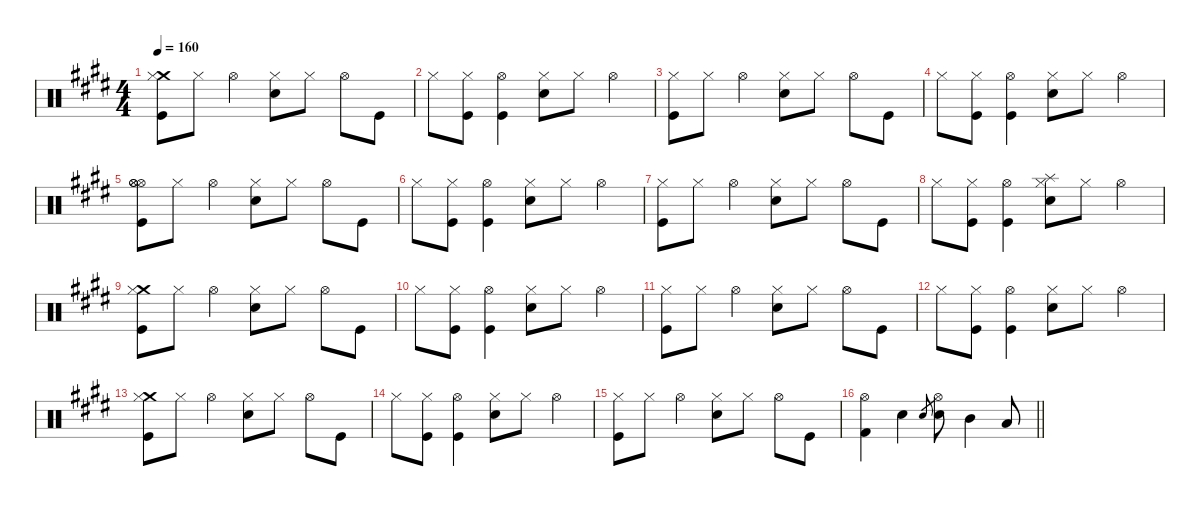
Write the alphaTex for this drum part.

\defaultSystemsLayout 4
\hideDynamics
\bracketExtendMode nobrackets
\singleTrackTrackNamePolicy hidden
\multiTrackTrackNamePolicy hidden
\firstSystemTrackNameMode fullname
\firstSystemTrackNameOrientation horizontal
\otherSystemsTrackNameOrientation horizontal
\track ("Drums" "drm.") {instrument percussion}
\staff {score}
\articulation defaults
\ts (4 4)
\tempo 160
\clef neutral
\ks c#minor
("Crash medium (hit)"{acc forcenatural} "Hi-Hat (closed)"{acc forcenatural} "Kick (hit)"{acc forcenatural}).8{dy f beam Down} "Hi-Hat (closed)"{acc forcenatural}.8{dy mf beam Down} "Hi-Hat (open)"{acc forcenatural}.4{dy f beam Down} ("Hi-Hat (closed)"{acc forcenatural} "Snare (hit) 2"{acc forcenatural}).8{beam Down} "Hi-Hat (closed)"{acc forcenatural}.8{dy mf beam Down} "Hi-Hat (open)"{acc forcenatural}.8{dy f beam Down} "Kick (hit)"{acc forcenatural}.8{beam Down} |
"Hi-Hat (closed)"{acc forcenatural}.8{beam Down} ("Hi-Hat (closed)"{acc forcenatural} "Kick (hit)"{acc forcenatural}).8{dy mf beam Down} ("Hi-Hat (open)"{acc forcenatural} "Kick (hit)"{acc forcenatural}).4{dy f beam Down} ("Hi-Hat (closed)"{acc forcenatural} "Snare (hit) 2"{acc forcenatural}).8{beam Down} "Hi-Hat (closed)"{acc forcenatural}.8{dy mf beam Down} "Hi-Hat (open)"{acc forcenatural}.4{dy f beam Down} |
("Hi-Hat (closed)"{acc forcenatural} "Kick (hit)"{acc forcenatural}).8{beam Down} "Hi-Hat (closed)"{acc forcenatural}.8{dy mf beam Down} "Hi-Hat (open)"{acc forcenatural}.4{dy f beam Down} ("Hi-Hat (closed)"{acc forcenatural} "Snare (hit) 2"{acc forcenatural}).8{beam Down} "Hi-Hat (closed)"{acc forcenatural}.8{dy mf beam Down} "Hi-Hat (open)"{acc forcenatural}.8{dy f beam Down} "Kick (hit)"{acc forcenatural}.8{beam Down} |
"Hi-Hat (closed)"{acc forcenatural}.8{beam Down} ("Hi-Hat (closed)"{acc forcenatural} "Kick (hit)"{acc forcenatural}).8{dy mf beam Down} ("Hi-Hat (open)"{acc forcenatural} "Kick (hit)"{acc forcenatural}).4{dy f beam Down} ("Hi-Hat (closed)"{acc forcenatural} "Snare (hit) 2"{acc forcenatural}).8{beam Down} "Hi-Hat (closed)"{acc forcenatural}.8{dy mf beam Down} "Hi-Hat (open)"{acc forcenatural}.4{dy f beam Down} |
("Hi-Hat (open)"{acc forcenatural} "Hi-Hat (open)"{acc forcenatural} "Hi-Hat (open)"{acc forcenatural} "Kick (hit)"{acc forcenatural}).8{beam Down} "Hi-Hat (closed)"{acc forcenatural}.8{dy mf beam Down} "Hi-Hat (open)"{acc forcenatural}.4{dy f beam Down} ("Hi-Hat (closed)"{acc forcenatural} "Snare (hit) 2"{acc forcenatural}).8{beam Down} "Hi-Hat (closed)"{acc forcenatural}.8{dy mf beam Down} "Hi-Hat (open)"{acc forcenatural}.8{dy f beam Down} "Kick (hit)"{acc forcenatural}.8{beam Down} |
"Hi-Hat (closed)"{acc forcenatural}.8{beam Down} ("Hi-Hat (closed)"{acc forcenatural} "Kick (hit)"{acc forcenatural}).8{dy mf beam Down} ("Hi-Hat (open)"{acc forcenatural} "Kick (hit)"{acc forcenatural}).4{dy f beam Down} ("Hi-Hat (closed)"{acc forcenatural} "Snare (hit) 2"{acc forcenatural}).8{beam Down} "Hi-Hat (closed)"{acc forcenatural}.8{dy mf beam Down} "Hi-Hat (open)"{acc forcenatural}.4{dy f beam Down} |
("Hi-Hat (closed)"{acc forcenatural} "Kick (hit)"{acc forcenatural}).8{beam Down} "Hi-Hat (closed)"{acc forcenatural}.8{dy mf beam Down} "Hi-Hat (open)"{acc forcenatural}.4{dy f beam Down} ("Hi-Hat (closed)"{acc forcenatural} "Snare (hit) 2"{acc forcenatural}).8{beam Down} "Hi-Hat (closed)"{acc forcenatural}.8{dy mf beam Down} "Hi-Hat (open)"{acc forcenatural}.8{dy f beam Down} "Kick (hit)"{acc forcenatural}.8{beam Down} |
"Hi-Hat (closed)"{acc forcenatural}.8{beam Down} ("Hi-Hat (closed)"{acc forcenatural} "Kick (hit)"{acc forcenatural}).8{dy mf beam Down} ("Hi-Hat (open)"{acc forcenatural} "Kick (hit)"{acc forcenatural}).4{dy f beam Down} ("Splash (hit)"{acc forcenatural} "Hi-Hat (closed)"{acc forcenatural} "Snare (hit) 2"{acc forcenatural}).8{beam Down} "Hi-Hat (closed)"{acc forcenatural}.8{dy mf beam Down} "Hi-Hat (open)"{acc forcenatural}.4{dy f beam Down} |
("Crash medium (hit)"{acc forcenatural} "Hi-Hat (closed)"{acc forcenatural} "Kick (hit)"{acc forcenatural}).8{beam Down} "Hi-Hat (closed)"{acc forcenatural}.8{dy mf beam Down} "Hi-Hat (open)"{acc forcenatural}.4{dy f beam Down} ("Hi-Hat (closed)"{acc forcenatural} "Snare (hit) 2"{acc forcenatural}).8{beam Down} "Hi-Hat (closed)"{acc forcenatural}.8{dy mf beam Down} "Hi-Hat (open)"{acc forcenatural}.8{dy f beam Down} "Kick (hit)"{acc forcenatural}.8{beam Down} |
"Hi-Hat (closed)"{acc forcenatural}.8{beam Down} ("Hi-Hat (closed)"{acc forcenatural} "Kick (hit)"{acc forcenatural}).8{dy mf beam Down} ("Hi-Hat (open)"{acc forcenatural} "Kick (hit)"{acc forcenatural}).4{dy f beam Down} ("Hi-Hat (closed)"{acc forcenatural} "Snare (hit) 2"{acc forcenatural}).8{beam Down} "Hi-Hat (closed)"{acc forcenatural}.8{dy mf beam Down} "Hi-Hat (open)"{acc forcenatural}.4{dy f beam Down} |
("Hi-Hat (closed)"{acc forcenatural} "Kick (hit)"{acc forcenatural}).8{beam Down} "Hi-Hat (closed)"{acc forcenatural}.8{dy mf beam Down} "Hi-Hat (open)"{acc forcenatural}.4{dy f beam Down} ("Hi-Hat (closed)"{acc forcenatural} "Snare (hit) 2"{acc forcenatural}).8{beam Down} "Hi-Hat (closed)"{acc forcenatural}.8{dy mf beam Down} "Hi-Hat (open)"{acc forcenatural}.8{dy f beam Down} "Kick (hit)"{acc forcenatural}.8{beam Down} |
"Hi-Hat (closed)"{acc forcenatural}.8{beam Down} ("Hi-Hat (closed)"{acc forcenatural} "Kick (hit)"{acc forcenatural}).8{dy mf beam Down} ("Hi-Hat (open)"{acc forcenatural} "Kick (hit)"{acc forcenatural}).4{dy f beam Down} ("Hi-Hat (closed)"{acc forcenatural} "Snare (hit) 2"{acc forcenatural}).8{beam Down} "Hi-Hat (closed)"{acc forcenatural}.8{dy mf beam Down} "Hi-Hat (open)"{acc forcenatural}.4{dy f beam Down} |
("Crash medium (hit)"{acc forcenatural} "Hi-Hat (closed)"{acc forcenatural} "Kick (hit)"{acc forcenatural}).8{beam Down} "Hi-Hat (closed)"{acc forcenatural}.8{dy mf beam Down} "Hi-Hat (open)"{acc forcenatural}.4{dy f beam Down} ("Hi-Hat (closed)"{acc forcenatural} "Snare (hit) 2"{acc forcenatural}).8{beam Down} "Hi-Hat (closed)"{acc forcenatural}.8{dy mf beam Down} "Hi-Hat (open)"{acc forcenatural}.8{dy f beam Down} "Kick (hit)"{acc forcenatural}.8{beam Down} |
"Hi-Hat (closed)"{acc forcenatural}.8{beam Down} ("Hi-Hat (closed)"{acc forcenatural} "Kick (hit)"{acc forcenatural}).8{dy mf beam Down} ("Hi-Hat (open)"{acc forcenatural} "Kick (hit)"{acc forcenatural}).4{dy f beam Down} ("Hi-Hat (closed)"{acc forcenatural} "Snare (hit) 2"{acc forcenatural}).8{beam Down} "Hi-Hat (closed)"{acc forcenatural}.8{dy mf beam Down} "Hi-Hat (open)"{acc forcenatural}.4{dy f beam Down} |
("Hi-Hat (closed)"{acc forcenatural} "Kick (hit)"{acc forcenatural}).8{beam Down} "Hi-Hat (closed)"{acc forcenatural}.8{dy mf beam Down} "Hi-Hat (open)"{acc forcenatural}.4{dy f beam Down} ("Hi-Hat (closed)"{acc forcenatural} "Snare (hit) 2"{acc forcenatural}).8{beam Down} "Hi-Hat (closed)"{acc forcenatural}.8{dy mf beam Down} "Hi-Hat (open)"{acc forcenatural}.8{dy f beam Down} "Kick (hit)"{acc forcenatural}.8{beam Down} |
\barLineRight lightlight
("Hi-Hat (open)"{acc forcenatural} "Kick (hit) 2"{acc forcenatural}).4{beam Down} "Snare (hit) 2"{acc forcenatural}.4{beam Down} "Electric Snare (hit)"{acc forcenatural}.8{gr dy mf beam Up} ("Hi-Hat (open)"{acc forcenatural} "Snare (hit) 2"{acc forcenatural}).8{dy f beam Down} "Mid Tom (hit)"{acc forcenatural}.4{beam Down} "Low Tom (hit)"{acc forcenatural}.8{beam Up}
